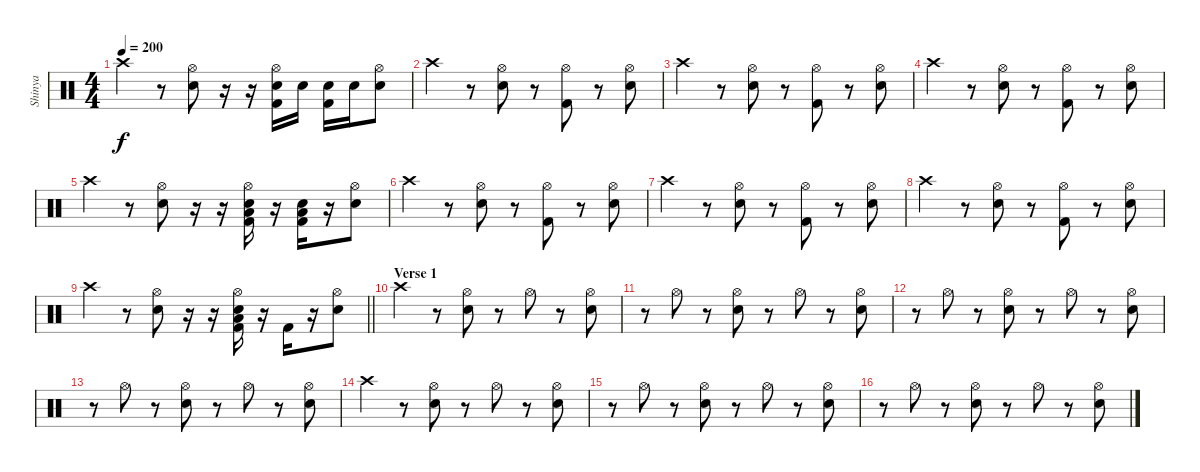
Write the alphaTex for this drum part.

\track ("Shinya" "Shinya") {instrument percussion}
\staff {score}
\articulation defaults
\ts (4 4)
\tempo 200
\clef neutral
\ks c "Crash high (hit)".4{dy f}
r.8 ("Hi-Hat (open)" "Electric Snare (hit)").8 r.16 r.16 ("Hi-Hat (open)" "Kick (hit) 2" "Electric Snare (hit)").16 "Electric Snare (hit)".16 ("Kick (hit) 2" "Electric Snare (hit)").16 "Electric Snare (hit)".16 ("Hi-Hat (open)" "Electric Snare (hit)").8 |
"Crash high (hit)".4 r.8 ("Hi-Hat (open)" "Electric Snare (hit)").8 r.8 ("Hi-Hat (open)" "Kick (hit) 2").8 r.8 ("Hi-Hat (open)" "Electric Snare (hit)").8 |
"Crash high (hit)".4 r.8 ("Hi-Hat (open)" "Electric Snare (hit)").8 r.8 ("Hi-Hat (open)" "Kick (hit) 2").8 r.8 ("Hi-Hat (open)" "Electric Snare (hit)").8 |
"Crash high (hit)".4 r.8 ("Hi-Hat (open)" "Electric Snare (hit)").8 r.8 ("Hi-Hat (open)" "Kick (hit) 2").8 r.8 ("Hi-Hat (open)" "Electric Snare (hit)").8 |
"Crash high (hit)".4 r.8 ("Hi-Hat (open)" "Electric Snare (hit)").8 r.16 r.16 ("Hi-Hat (open)" "Kick (hit) 2" "Electric Snare (hit)" "Low Tom (hit)").16 r.16 ("Kick (hit) 2" "Electric Snare (hit)" "Low Tom (hit)").16 r.16 ("Hi-Hat (open)" "Electric Snare (hit)").8 |
"Crash high (hit)".4 r.8 ("Hi-Hat (open)" "Electric Snare (hit)").8 r.8 ("Hi-Hat (open)" "Kick (hit) 2").8 r.8 ("Hi-Hat (open)" "Electric Snare (hit)").8 |
"Crash high (hit)".4 r.8 ("Hi-Hat (open)" "Electric Snare (hit)").8 r.8 ("Hi-Hat (open)" "Kick (hit) 2").8 r.8 ("Hi-Hat (open)" "Electric Snare (hit)").8 |
"Crash high (hit)".4 r.8 ("Hi-Hat (open)" "Electric Snare (hit)").8 r.8 ("Hi-Hat (open)" "Kick (hit) 2").8 r.8 ("Hi-Hat (open)" "Electric Snare (hit)").8 |
\barLineRight lightlight "Crash high (hit)".4
r.8 ("Hi-Hat (open)" "Electric Snare (hit)").8 r.16 r.16 ("Hi-Hat (open)" "Kick (hit) 2" "Electric Snare (hit)" "Low Tom (hit)").16 r.16 "Kick (hit) 2".16 r.16 ("Hi-Hat (open)" "Electric Snare (hit)").8 |
\section ("" "Verse 1")
"Crash high (hit)".4 r.8 ("Hi-Hat (open)" "Electric Snare (hit)").8 r.8 "Hi-Hat (open)".8 r.8 ("Hi-Hat (open)" "Electric Snare (hit)").8 |
r.8 "Hi-Hat (open)".8 r.8 ("Hi-Hat (open)" "Electric Snare (hit)").8 r.8 "Hi-Hat (open)".8 r.8 ("Hi-Hat (open)" "Electric Snare (hit)").8 |
r.8 "Hi-Hat (open)".8 r.8 ("Hi-Hat (open)" "Electric Snare (hit)").8 r.8 "Hi-Hat (open)".8 r.8 ("Hi-Hat (open)" "Electric Snare (hit)").8 |
r.8 "Hi-Hat (open)".8 r.8 ("Hi-Hat (open)" "Electric Snare (hit)").8 r.8 "Hi-Hat (open)".8 r.8 ("Hi-Hat (open)" "Electric Snare (hit)").8 |
"Crash high (hit)".4 r.8 ("Hi-Hat (open)" "Electric Snare (hit)").8 r.8 "Hi-Hat (open)".8 r.8 ("Hi-Hat (open)" "Electric Snare (hit)").8 |
r.8 "Hi-Hat (open)".8 r.8 ("Hi-Hat (open)" "Electric Snare (hit)").8 r.8 "Hi-Hat (open)".8 r.8 ("Hi-Hat (open)" "Electric Snare (hit)").8 |
r.8 "Hi-Hat (open)".8 r.8 ("Hi-Hat (open)" "Electric Snare (hit)").8 r.8 "Hi-Hat (open)".8 r.8 ("Hi-Hat (open)" "Electric Snare (hit)").8
